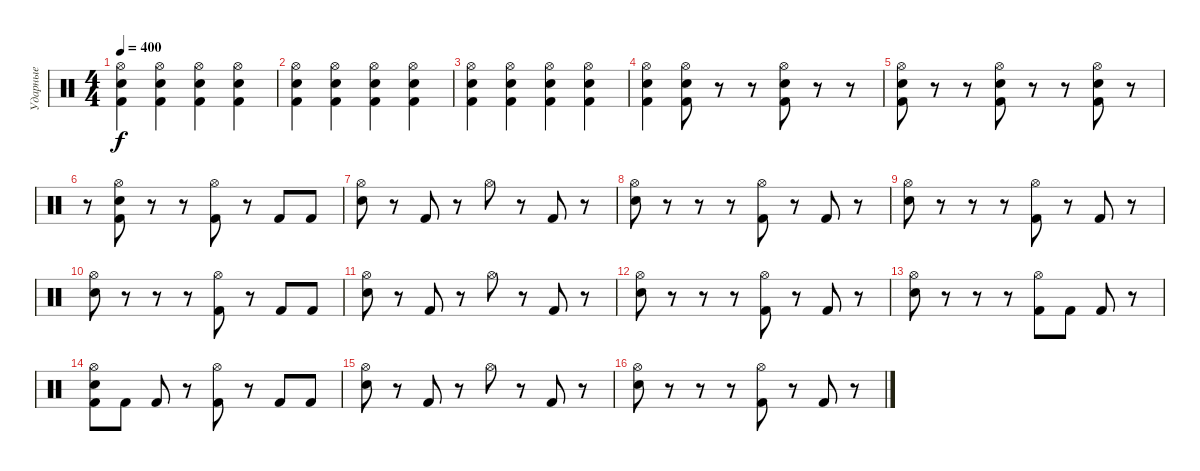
\track ("Ударные" "Ударные") {instrument percussion}
\staff {score}
\articulation defaults
\ts (4 4)
\tempo 400
\clef neutral
\ks c
("Electric Snare (hit)" "Kick (hit) 2" "Hi-Hat (open)").4{dy f} ("Kick (hit) 2" "Electric Snare (hit)" "Hi-Hat (open)").4 ("Hi-Hat (open)" "Kick (hit) 2" "Electric Snare (hit)").4 ("Electric Snare (hit)" "Kick (hit) 2" "Hi-Hat (open)").4 |
("Electric Snare (hit)" "Kick (hit) 2" "Hi-Hat (open)").4 ("Kick (hit) 2" "Electric Snare (hit)" "Hi-Hat (open)").4 ("Hi-Hat (open)" "Kick (hit) 2" "Electric Snare (hit)").4 ("Electric Snare (hit)" "Kick (hit) 2" "Hi-Hat (open)").4 |
("Electric Snare (hit)" "Kick (hit) 2" "Hi-Hat (open)").4 ("Kick (hit) 2" "Electric Snare (hit)" "Hi-Hat (open)").4 ("Hi-Hat (open)" "Kick (hit) 2" "Electric Snare (hit)").4 ("Electric Snare (hit)" "Kick (hit) 2" "Hi-Hat (open)").4 |
("Hi-Hat (open)" "Kick (hit) 2" "Electric Snare (hit)").4 ("Kick (hit) 2" "Electric Snare (hit)" "Hi-Hat (open)").8 r.8 r.8 ("Hi-Hat (open)" "Kick (hit) 2" "Electric Snare (hit)").8 r.8 r.8 |
("Electric Snare (hit)" "Kick (hit) 2" "Hi-Hat (open)").8 r.8 r.8 ("Hi-Hat (open)" "Kick (hit) 2" "Electric Snare (hit)").8 r.8 r.8 ("Electric Snare (hit)" "Kick (hit) 2" "Hi-Hat (open)").8 r.8 |
r.8 ("Hi-Hat (open)" "Kick (hit) 2" "Electric Snare (hit)").8 r.8 r.8 ("Kick (hit) 2" "Hi-Hat (open)").8 r.8 "Kick (hit) 2".8 "Kick (hit) 2".8 |
("Electric Snare (hit)" "Hi-Hat (open)").8 r.8 "Kick (hit) 2".8 r.8 "Hi-Hat (open)".8 r.8 "Kick (hit) 2".8 r.8 |
("Electric Snare (hit)" "Hi-Hat (open)").8 r.8 r.8 r.8 ("Kick (hit) 2" "Hi-Hat (open)").8 r.8 "Kick (hit) 2".8 r.8 |
("Electric Snare (hit)" "Hi-Hat (open)").8 r.8 r.8 r.8 ("Kick (hit) 2" "Hi-Hat (open)").8 r.8 "Kick (hit) 2".8 r.8 |
("Electric Snare (hit)" "Hi-Hat (open)").8 r.8 r.8 r.8 ("Kick (hit) 2" "Hi-Hat (open)").8 r.8 "Kick (hit) 2".8 "Kick (hit) 2".8 |
("Electric Snare (hit)" "Hi-Hat (open)").8 r.8 "Kick (hit) 2".8 r.8 "Hi-Hat (open)".8 r.8 "Kick (hit) 2".8 r.8 |
("Electric Snare (hit)" "Hi-Hat (open)").8 r.8 r.8 r.8 ("Kick (hit) 2" "Hi-Hat (open)").8 r.8 "Kick (hit) 2".8 r.8 |
("Electric Snare (hit)" "Hi-Hat (open)").8 r.8 r.8 r.8 ("Kick (hit) 2" "Hi-Hat (open)").8 "Kick (hit) 2".8 "Kick (hit) 2".8 r.8 |
("Kick (hit) 2" "Electric Snare (hit)" "Hi-Hat (open)").8 "Kick (hit) 2".8 "Kick (hit) 2".8 r.8 ("Kick (hit) 2" "Hi-Hat (open)").8 r.8 "Kick (hit) 2".8 "Kick (hit) 2".8 |
("Electric Snare (hit)" "Hi-Hat (open)").8 r.8 "Kick (hit) 2".8 r.8 "Hi-Hat (open)".8 r.8 "Kick (hit) 2".8 r.8 |
("Electric Snare (hit)" "Hi-Hat (open)").8 r.8 r.8 r.8 ("Kick (hit) 2" "Hi-Hat (open)").8 r.8 "Kick (hit) 2".8 r.8
